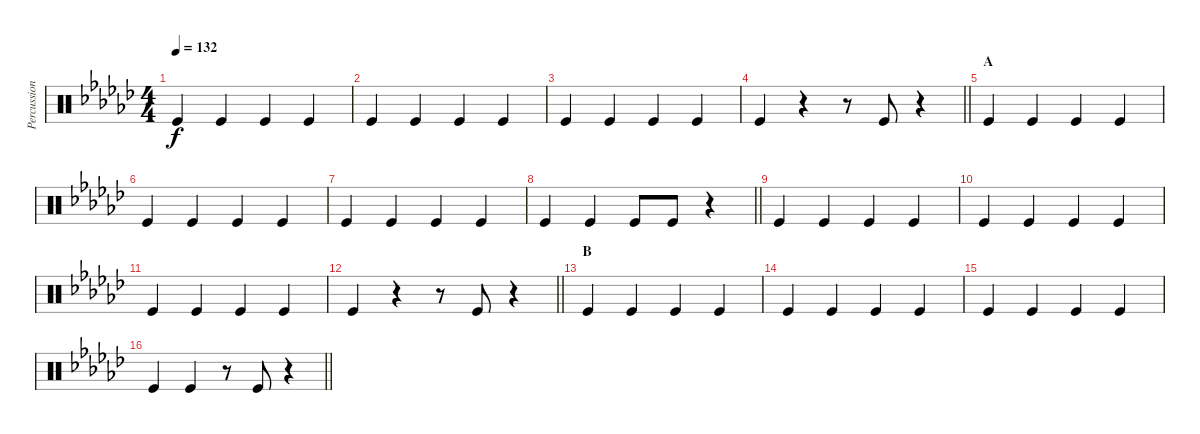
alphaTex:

\track ("Percussion foot" "Percussion") {instrument percussion}
\staff {score}
\articulation defaults
\ts (4 4)
\tempo 132
\clef neutral
\ks gb "Kick (hit)".4{dy f} "Kick (hit)".4 "Kick (hit)".4 "Kick (hit)".4
|
"Kick (hit)".4 "Kick (hit)".4 "Kick (hit)".4 "Kick (hit)".4 |
"Kick (hit)".4 "Kick (hit)".4 "Kick (hit)".4 "Kick (hit)".4 |
\barLineRight lightlight "Kick (hit)".4
r.4 r.8 "Kick (hit)".8 r.4 |
\section ("" "A")
"Kick (hit)".4 "Kick (hit)".4 "Kick (hit)".4 "Kick (hit)".4 |
"Kick (hit)".4 "Kick (hit)".4 "Kick (hit)".4 "Kick (hit)".4 |
"Kick (hit)".4 "Kick (hit)".4 "Kick (hit)".4 "Kick (hit)".4 |
\barLineRight lightlight "Kick (hit)".4 "Kick (hit)".4 "Kick (hit)".8 "Kick (hit)".8
r.4 |
"Kick (hit)".4 "Kick (hit)".4 "Kick (hit)".4 "Kick (hit)".4 |
"Kick (hit)".4 "Kick (hit)".4 "Kick (hit)".4 "Kick (hit)".4 |
"Kick (hit)".4 "Kick (hit)".4 "Kick (hit)".4 "Kick (hit)".4 |
\barLineRight lightlight "Kick (hit)".4
r.4 r.8 "Kick (hit)".8 r.4 |
\section ("" "B")
"Kick (hit)".4 "Kick (hit)".4 "Kick (hit)".4 "Kick (hit)".4 |
"Kick (hit)".4 "Kick (hit)".4 "Kick (hit)".4 "Kick (hit)".4 |
"Kick (hit)".4 "Kick (hit)".4 "Kick (hit)".4 "Kick (hit)".4 |
\barLineRight lightlight "Kick (hit)".4 "Kick (hit)".4
r.8 "Kick (hit)".8 r.4
